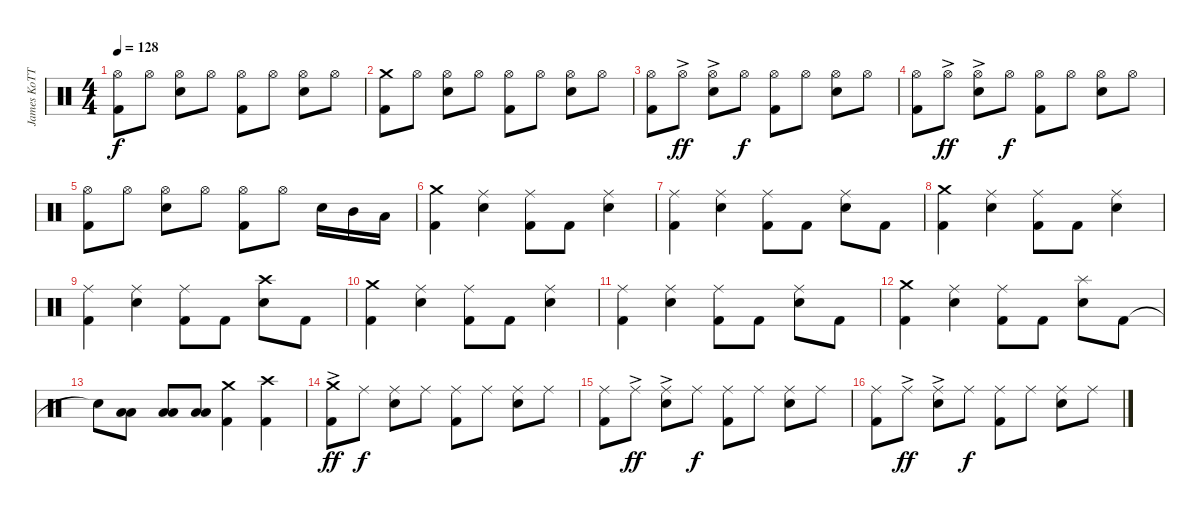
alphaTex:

\track ("James KoTTak" "James KoTT") {instrument percussion}
\staff {score}
\articulation defaults
\ts (4 4)
\tempo 128
\clef neutral
\ks c
("Kick (hit) 2" "Hi-Hat (open)").8{dy f} "Hi-Hat (open)".8 ("Hi-Hat (open)" "Snare (hit) 2").8 "Hi-Hat (open)".8 ("Hi-Hat (open)" "Kick (hit) 2").8 "Hi-Hat (open)".8 ("Hi-Hat (open)" "Snare (hit) 2").8 "Hi-Hat (open)".8 |
("Kick (hit) 2" "Crash medium (hit)").8 "Hi-Hat (open)".8 ("Hi-Hat (open)" "Snare (hit) 2").8 "Hi-Hat (open)".8 ("Hi-Hat (open)" "Kick (hit) 2").8 "Hi-Hat (open)".8 ("Hi-Hat (open)" "Snare (hit) 2").8 "Hi-Hat (open)".8 |
("Kick (hit) 2" "Hi-Hat (open)").8 "Hi-Hat (open)"{ac}.8{dy ff} ("Hi-Hat (open)"{ac} "Snare (hit) 2").8 "Hi-Hat (open)".8{dy f} ("Hi-Hat (open)" "Kick (hit) 2").8 "Hi-Hat (open)".8 ("Hi-Hat (open)" "Snare (hit) 2").8 "Hi-Hat (open)".8 |
("Kick (hit) 2" "Hi-Hat (open)").8 "Hi-Hat (open)"{ac}.8{dy ff} ("Hi-Hat (open)"{ac} "Snare (hit) 2").8 "Hi-Hat (open)".8{dy f} ("Hi-Hat (open)" "Kick (hit) 2").8 "Hi-Hat (open)".8 ("Hi-Hat (open)" "Snare (hit) 2").8 "Hi-Hat (open)".8 |
("Kick (hit) 2" "Hi-Hat (open)").8 "Hi-Hat (open)".8 ("Hi-Hat (open)" "Snare (hit) 2").8 "Hi-Hat (open)".8 ("Hi-Hat (open)" "Kick (hit) 2").8 "Hi-Hat (open)".8 "Snare (hit) 2".16 "Mid Tom (hit)".16 "Low Tom (hit)".16 |
("Crash medium (hit)" "Kick (hit) 2").4 ("Ride (middle)" "Snare (hit) 2").4 ("Ride (middle)" "Kick (hit) 2").8 "Kick (hit) 2".8 ("Ride (middle)" "Snare (hit) 2").4 |
("Ride (middle)" "Kick (hit) 2").4 ("Ride (middle)" "Snare (hit) 2").4 ("Ride (middle)" "Kick (hit) 2").8 "Kick (hit) 2".8 ("Ride (middle)" "Snare (hit) 2").8 "Kick (hit) 2".8 |
("Crash medium (hit)" "Kick (hit) 2").4 ("Ride (middle)" "Snare (hit) 2").4 ("Ride (middle)" "Kick (hit) 2").8 "Kick (hit) 2".8 ("Ride (middle)" "Snare (hit) 2").4 |
("Ride (middle)" "Kick (hit) 2").4 ("Ride (middle)" "Snare (hit) 2").4 ("Ride (middle)" "Kick (hit) 2").8 "Kick (hit) 2".8 ("Crash high (hit)" "Snare (hit) 2").8 "Kick (hit) 2".8 |
("Crash medium (hit)" "Kick (hit) 2").4 ("Ride (middle)" "Snare (hit) 2").4 ("Ride (middle)" "Kick (hit) 2").8 "Kick (hit) 2".8 ("Ride (middle)" "Snare (hit) 2").4 |
("Ride (middle)" "Kick (hit) 2").4 ("Ride (middle)" "Snare (hit) 2").4 ("Ride (middle)" "Kick (hit) 2").8 "Kick (hit) 2".8 ("Ride (middle)" "Snare (hit) 2").8 "Kick (hit) 2".8 |
("Crash medium (hit)" "Kick (hit) 2").4 ("Ride (middle)" "Snare (hit) 2").4 ("Ride (middle)" "Kick (hit) 2").8 "Kick (hit) 2".8 ("Splash (hit)" "Snare (hit) 2").8 "Kick (hit) 2".8 |
"Snare (hit)"{t}.8{bd 120} ("Low Tom (hit)" "Low Tom (hit)").8{bd 120} ("Low Tom (hit)" "Low Tom (hit)").8{bd 120} ("Low Tom (hit)" "Low Tom (hit)").8{bd 120} ("Crash medium (hit)" "Kick (hit) 2").4 ("Crash high (hit)" "Kick (hit) 2").4 |
("Crash medium (hit)"{ac} "Kick (hit) 2").8{dy ff} "Ride (middle)".8{dy f} ("Ride (middle)" "Snare (hit) 2").8 "Ride (middle)".8 ("Ride (middle)" "Kick (hit) 2").8 "Ride (middle)".8 ("Ride (middle)" "Snare (hit) 2").8 "Ride (middle)".8 |
("Kick (hit) 2" "Ride (middle)").8 "Ride (middle)"{ac}.8{dy ff} ("Ride (middle)"{ac} "Snare (hit) 2").8 "Ride (middle)".8{dy f} ("Ride (middle)" "Kick (hit) 2").8 "Ride (middle)".8 ("Ride (middle)" "Snare (hit) 2").8 "Ride (middle)".8 |
("Kick (hit) 2" "Ride (middle)").8 "Ride (middle)"{ac}.8{dy ff} ("Ride (middle)"{ac} "Snare (hit) 2").8 "Ride (middle)".8{dy f} ("Ride (middle)" "Kick (hit) 2").8 "Ride (middle)".8 ("Ride (middle)" "Snare (hit) 2").8 "Ride (middle)".8
